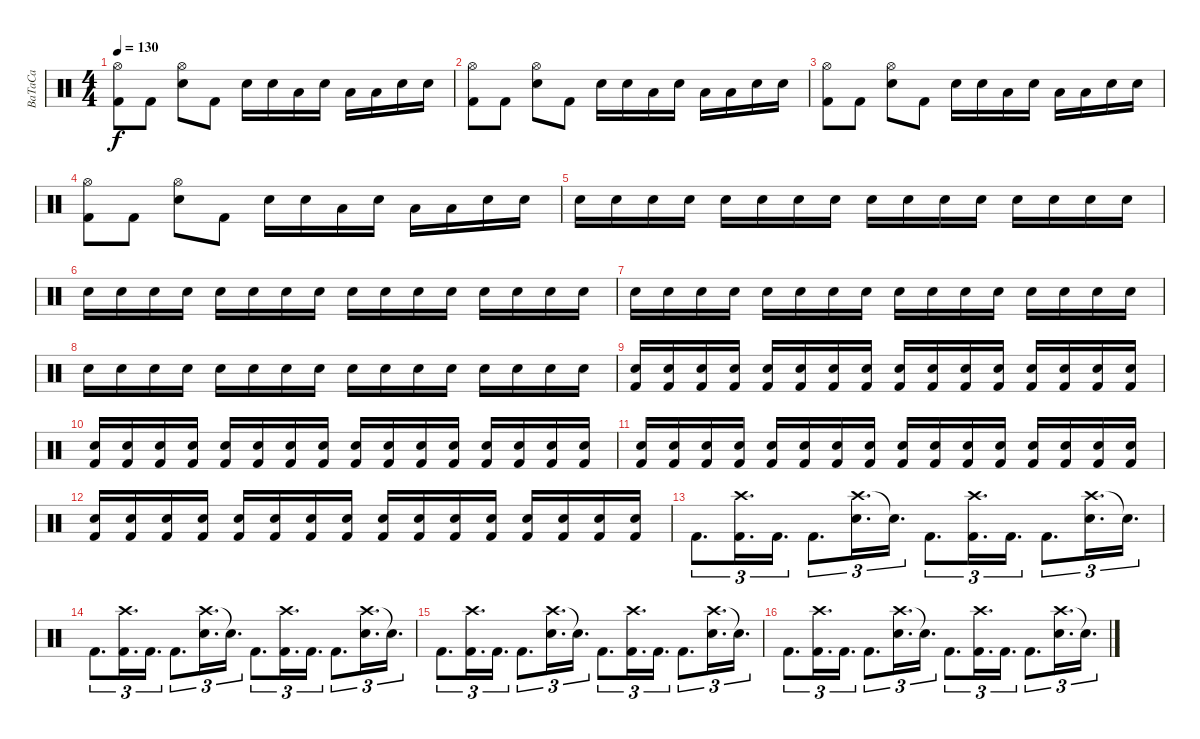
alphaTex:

\track ("BaTaCa" "BaTaCa") {instrument percussion}
\staff {score}
\articulation defaults
\ts (4 4)
\tempo 130
\clef neutral
\ks c
("Hi-Hat (open)" "Kick (hit) 2").8{dy f} "Kick (hit) 2".8 ("Hi-Hat (open)" "Electric Snare (hit)").8 "Kick (hit) 2".8 "Electric Snare (hit)".16 "Electric Snare (hit)".16 "Low Tom (hit)".16 "Electric Snare (hit)".16 "Low Tom (hit)".16 "Low Tom (hit)".16 "Electric Snare (hit)".16 "Electric Snare (hit)".16 |
("Hi-Hat (open)" "Kick (hit) 2").8 "Kick (hit) 2".8 ("Hi-Hat (open)" "Electric Snare (hit)").8 "Kick (hit) 2".8 "Electric Snare (hit)".16 "Electric Snare (hit)".16 "Low Tom (hit)".16 "Electric Snare (hit)".16 "Low Tom (hit)".16 "Low Tom (hit)".16 "Electric Snare (hit)".16 "Electric Snare (hit)".16 |
("Hi-Hat (open)" "Kick (hit) 2").8 "Kick (hit) 2".8 ("Hi-Hat (open)" "Electric Snare (hit)").8 "Kick (hit) 2".8 "Electric Snare (hit)".16 "Electric Snare (hit)".16 "Low Tom (hit)".16 "Electric Snare (hit)".16 "Low Tom (hit)".16 "Low Tom (hit)".16 "Electric Snare (hit)".16 "Electric Snare (hit)".16 |
("Hi-Hat (open)" "Kick (hit) 2").8 "Kick (hit) 2".8 ("Hi-Hat (open)" "Electric Snare (hit)").8 "Kick (hit) 2".8 "Electric Snare (hit)".16 "Electric Snare (hit)".16 "Low Tom (hit)".16 "Electric Snare (hit)".16 "Low Tom (hit)".16 "Low Tom (hit)".16 "Electric Snare (hit)".16 "Electric Snare (hit)".16 |
"Electric Snare (hit)".16 "Electric Snare (hit)".16 "Electric Snare (hit)".16 "Electric Snare (hit)".16 "Electric Snare (hit)".16 "Electric Snare (hit)".16 "Electric Snare (hit)".16 "Electric Snare (hit)".16 "Electric Snare (hit)".16 "Electric Snare (hit)".16 "Electric Snare (hit)".16 "Electric Snare (hit)".16 "Electric Snare (hit)".16 "Electric Snare (hit)".16 "Electric Snare (hit)".16 "Electric Snare (hit)".16 |
"Electric Snare (hit)".16 "Electric Snare (hit)".16 "Electric Snare (hit)".16 "Electric Snare (hit)".16 "Electric Snare (hit)".16 "Electric Snare (hit)".16 "Electric Snare (hit)".16 "Electric Snare (hit)".16 "Electric Snare (hit)".16 "Electric Snare (hit)".16 "Electric Snare (hit)".16 "Electric Snare (hit)".16 "Electric Snare (hit)".16 "Electric Snare (hit)".16 "Electric Snare (hit)".16 "Electric Snare (hit)".16 |
"Electric Snare (hit)".16 "Electric Snare (hit)".16 "Electric Snare (hit)".16 "Electric Snare (hit)".16 "Electric Snare (hit)".16 "Electric Snare (hit)".16 "Electric Snare (hit)".16 "Electric Snare (hit)".16 "Electric Snare (hit)".16 "Electric Snare (hit)".16 "Electric Snare (hit)".16 "Electric Snare (hit)".16 "Electric Snare (hit)".16 "Electric Snare (hit)".16 "Electric Snare (hit)".16 "Electric Snare (hit)".16 |
"Electric Snare (hit)".16 "Electric Snare (hit)".16 "Electric Snare (hit)".16 "Electric Snare (hit)".16 "Electric Snare (hit)".16 "Electric Snare (hit)".16 "Electric Snare (hit)".16 "Electric Snare (hit)".16 "Electric Snare (hit)".16 "Electric Snare (hit)".16 "Electric Snare (hit)".16 "Electric Snare (hit)".16 "Electric Snare (hit)".16 "Electric Snare (hit)".16 "Electric Snare (hit)".16 "Electric Snare (hit)".16 |
("Electric Snare (hit)" "Kick (hit) 2").16 ("Electric Snare (hit)" "Kick (hit) 2").16 ("Electric Snare (hit)" "Kick (hit) 2").16 ("Electric Snare (hit)" "Kick (hit) 2").16 ("Electric Snare (hit)" "Kick (hit) 2").16 ("Electric Snare (hit)" "Kick (hit) 2").16 ("Electric Snare (hit)" "Kick (hit) 2").16 ("Electric Snare (hit)" "Kick (hit) 2").16 ("Electric Snare (hit)" "Kick (hit) 2").16 ("Electric Snare (hit)" "Kick (hit) 2").16 ("Electric Snare (hit)" "Kick (hit) 2").16 ("Electric Snare (hit)" "Kick (hit) 2").16 ("Electric Snare (hit)" "Kick (hit) 2").16 ("Electric Snare (hit)" "Kick (hit) 2").16 ("Electric Snare (hit)" "Kick (hit) 2").16 ("Electric Snare (hit)" "Kick (hit) 2").16 |
("Electric Snare (hit)" "Kick (hit) 2").16 ("Electric Snare (hit)" "Kick (hit) 2").16 ("Electric Snare (hit)" "Kick (hit) 2").16 ("Electric Snare (hit)" "Kick (hit) 2").16 ("Electric Snare (hit)" "Kick (hit) 2").16 ("Electric Snare (hit)" "Kick (hit) 2").16 ("Electric Snare (hit)" "Kick (hit) 2").16 ("Electric Snare (hit)" "Kick (hit) 2").16 ("Electric Snare (hit)" "Kick (hit) 2").16 ("Electric Snare (hit)" "Kick (hit) 2").16 ("Electric Snare (hit)" "Kick (hit) 2").16 ("Electric Snare (hit)" "Kick (hit) 2").16 ("Electric Snare (hit)" "Kick (hit) 2").16 ("Electric Snare (hit)" "Kick (hit) 2").16 ("Electric Snare (hit)" "Kick (hit) 2").16 ("Electric Snare (hit)" "Kick (hit) 2").16 |
("Electric Snare (hit)" "Kick (hit) 2").16 ("Electric Snare (hit)" "Kick (hit) 2").16 ("Electric Snare (hit)" "Kick (hit) 2").16 ("Electric Snare (hit)" "Kick (hit) 2").16 ("Electric Snare (hit)" "Kick (hit) 2").16 ("Electric Snare (hit)" "Kick (hit) 2").16 ("Electric Snare (hit)" "Kick (hit) 2").16 ("Electric Snare (hit)" "Kick (hit) 2").16 ("Electric Snare (hit)" "Kick (hit) 2").16 ("Electric Snare (hit)" "Kick (hit) 2").16 ("Electric Snare (hit)" "Kick (hit) 2").16 ("Electric Snare (hit)" "Kick (hit) 2").16 ("Electric Snare (hit)" "Kick (hit) 2").16 ("Electric Snare (hit)" "Kick (hit) 2").16 ("Electric Snare (hit)" "Kick (hit) 2").16 ("Electric Snare (hit)" "Kick (hit) 2").16 |
("Electric Snare (hit)" "Kick (hit) 2").16 ("Electric Snare (hit)" "Kick (hit) 2").16 ("Electric Snare (hit)" "Kick (hit) 2").16 ("Electric Snare (hit)" "Kick (hit) 2").16 ("Electric Snare (hit)" "Kick (hit) 2").16 ("Electric Snare (hit)" "Kick (hit) 2").16 ("Electric Snare (hit)" "Kick (hit) 2").16 ("Electric Snare (hit)" "Kick (hit) 2").16 ("Electric Snare (hit)" "Kick (hit) 2").16 ("Electric Snare (hit)" "Kick (hit) 2").16 ("Electric Snare (hit)" "Kick (hit) 2").16 ("Electric Snare (hit)" "Kick (hit) 2").16 ("Electric Snare (hit)" "Kick (hit) 2").16 ("Electric Snare (hit)" "Kick (hit) 2").16 ("Electric Snare (hit)" "Kick (hit) 2").16 ("Electric Snare (hit)" "Kick (hit) 2").16 |
"Kick (hit) 2".8{d tu (3 2)} ("Crash high (hit)" "Kick (hit) 2").16{d tu (3 2)} "Kick (hit) 2".16{d tu (3 2)} "Kick (hit) 2".8{d tu (3 2)} ("Crash high (hit)" "Electric Snare (hit)").16{d tu (3 2)} "Electric Snare (hit)"{t}.16{d tu (3 2)} "Kick (hit) 2".8{d tu (3 2)} ("Crash high (hit)" "Kick (hit) 2").16{d tu (3 2)} "Kick (hit) 2".16{d tu (3 2)} "Kick (hit) 2".8{d tu (3 2)} ("Crash high (hit)" "Electric Snare (hit)").16{d tu (3 2)} "Electric Snare (hit)"{t}.16{d tu (3 2)} |
"Kick (hit) 2".8{d tu (3 2)} ("Crash high (hit)" "Kick (hit) 2").16{d tu (3 2)} "Kick (hit) 2".16{d tu (3 2)} "Kick (hit) 2".8{d tu (3 2)} ("Crash high (hit)" "Electric Snare (hit)").16{d tu (3 2)} "Electric Snare (hit)"{t}.16{d tu (3 2)} "Kick (hit) 2".8{d tu (3 2)} ("Crash high (hit)" "Kick (hit) 2").16{d tu (3 2)} "Kick (hit) 2".16{d tu (3 2)} "Kick (hit) 2".8{d tu (3 2)} ("Crash high (hit)" "Electric Snare (hit)").16{d tu (3 2)} "Electric Snare (hit)"{t}.16{d tu (3 2)} |
"Kick (hit) 2".8{d tu (3 2)} ("Crash high (hit)" "Kick (hit) 2").16{d tu (3 2)} "Kick (hit) 2".16{d tu (3 2)} "Kick (hit) 2".8{d tu (3 2)} ("Crash high (hit)" "Electric Snare (hit)").16{d tu (3 2)} "Electric Snare (hit)"{t}.16{d tu (3 2)} "Kick (hit) 2".8{d tu (3 2)} ("Crash high (hit)" "Kick (hit) 2").16{d tu (3 2)} "Kick (hit) 2".16{d tu (3 2)} "Kick (hit) 2".8{d tu (3 2)} ("Crash high (hit)" "Electric Snare (hit)").16{d tu (3 2)} "Electric Snare (hit)"{t}.16{d tu (3 2)} |
"Kick (hit) 2".8{d tu (3 2)} ("Crash high (hit)" "Kick (hit) 2").16{d tu (3 2)} "Kick (hit) 2".16{d tu (3 2)} "Kick (hit) 2".8{d tu (3 2)} ("Crash high (hit)" "Electric Snare (hit)").16{d tu (3 2)} "Electric Snare (hit)"{t}.16{d tu (3 2)} "Kick (hit) 2".8{d tu (3 2)} ("Crash high (hit)" "Kick (hit) 2").16{d tu (3 2)} "Kick (hit) 2".16{d tu (3 2)} "Kick (hit) 2".8{d tu (3 2)} ("Crash high (hit)" "Electric Snare (hit)").16{d tu (3 2)} "Electric Snare (hit)"{t}.16{d tu (3 2)}
